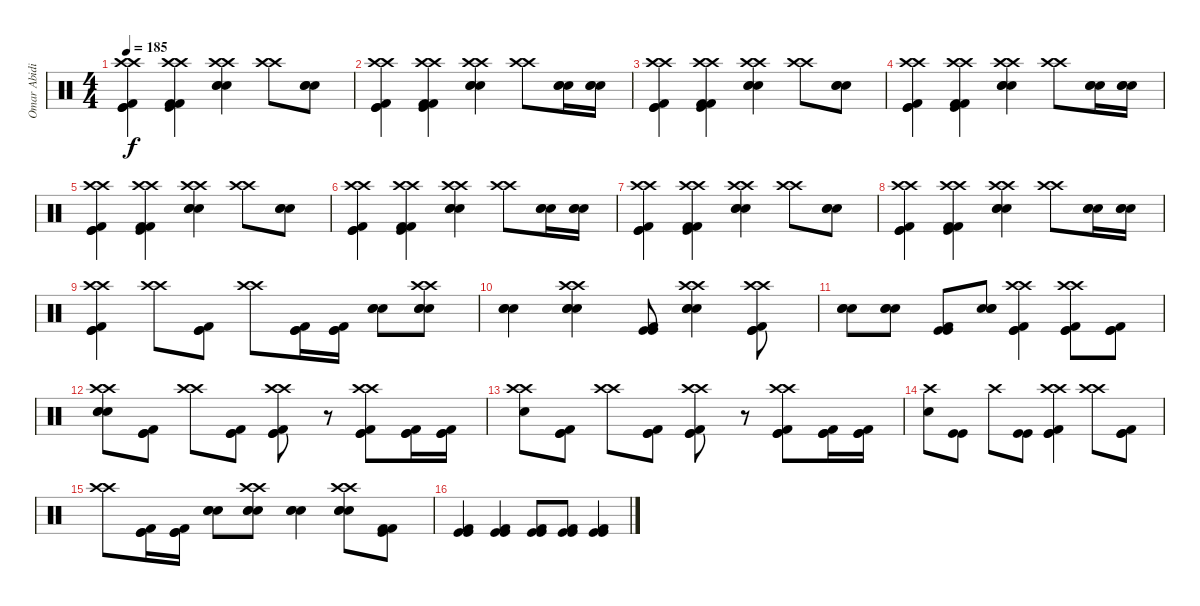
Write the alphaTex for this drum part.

\track ("Omar Abidi" "Omar Abidi") {instrument percussion}
\staff {score}
\articulation defaults
\ts (4 4)
\tempo 185
\clef neutral
\ks c
("Crash high (hit)" "Crash high (hit)" "Kick (hit) 2" "Kick (hit)" "Kick (hit)").4{dy f} ("Crash high (hit)" "Crash high (hit)" "Kick (hit) 2" "Kick (hit) 2" "Kick (hit)").4 ("Crash high (hit)" "Crash high (hit)" "Snare (hit) 2" "Snare (hit) 2" "Electric Snare (hit)").4 ("Crash high (hit)" "Crash high (hit)").8 ("Snare (hit) 2" "Snare (hit) 2" "Electric Snare (hit)").8 |
("Crash high (hit)" "Crash high (hit)" "Kick (hit) 2" "Kick (hit)" "Kick (hit)").4 ("Crash high (hit)" "Crash high (hit)" "Kick (hit) 2" "Kick (hit) 2" "Kick (hit)").4 ("Crash high (hit)" "Crash high (hit)" "Snare (hit) 2" "Snare (hit) 2" "Electric Snare (hit)").4 ("Crash high (hit)" "Crash high (hit)").8 ("Snare (hit) 2" "Snare (hit) 2" "Electric Snare (hit)").16 ("Snare (hit) 2" "Snare (hit) 2" "Electric Snare (hit)").16 |
("Crash high (hit)" "Crash high (hit)" "Kick (hit) 2" "Kick (hit)" "Kick (hit)").4 ("Crash high (hit)" "Crash high (hit)" "Kick (hit) 2" "Kick (hit) 2" "Kick (hit)").4 ("Crash high (hit)" "Crash high (hit)" "Snare (hit) 2" "Snare (hit) 2" "Electric Snare (hit)").4 ("Crash high (hit)" "Crash high (hit)").8 ("Snare (hit) 2" "Snare (hit) 2" "Electric Snare (hit)").8 |
("Crash high (hit)" "Crash high (hit)" "Kick (hit) 2" "Kick (hit)" "Kick (hit)").4 ("Crash high (hit)" "Crash high (hit)" "Kick (hit) 2" "Kick (hit) 2" "Kick (hit)").4 ("Crash high (hit)" "Crash high (hit)" "Snare (hit) 2" "Snare (hit) 2" "Electric Snare (hit)").4 ("Crash high (hit)" "Crash high (hit)").8 ("Snare (hit) 2" "Snare (hit) 2" "Electric Snare (hit)").16 ("Snare (hit) 2" "Snare (hit) 2" "Electric Snare (hit)").16 |
("Crash high (hit)" "Crash high (hit)" "Kick (hit) 2" "Kick (hit)" "Kick (hit)").4 ("Crash high (hit)" "Crash high (hit)" "Kick (hit) 2" "Kick (hit) 2" "Kick (hit)").4 ("Crash high (hit)" "Crash high (hit)" "Snare (hit) 2" "Snare (hit) 2" "Electric Snare (hit)").4 ("Crash high (hit)" "Crash high (hit)").8 ("Snare (hit) 2" "Snare (hit) 2" "Electric Snare (hit)").8 |
("Crash high (hit)" "Crash high (hit)" "Kick (hit) 2" "Kick (hit)" "Kick (hit)").4 ("Crash high (hit)" "Crash high (hit)" "Kick (hit) 2" "Kick (hit) 2" "Kick (hit)").4 ("Crash high (hit)" "Crash high (hit)" "Snare (hit) 2" "Snare (hit) 2" "Electric Snare (hit)").4 ("Crash high (hit)" "Crash high (hit)").8 ("Snare (hit) 2" "Snare (hit) 2" "Electric Snare (hit)").16 ("Snare (hit) 2" "Snare (hit) 2" "Electric Snare (hit)").16 |
("Crash high (hit)" "Crash high (hit)" "Kick (hit) 2" "Kick (hit)" "Kick (hit)").4 ("Crash high (hit)" "Crash high (hit)" "Kick (hit) 2" "Kick (hit) 2" "Kick (hit)").4 ("Crash high (hit)" "Crash high (hit)" "Snare (hit) 2" "Snare (hit) 2" "Electric Snare (hit)").4 ("Crash high (hit)" "Crash high (hit)").8 ("Snare (hit) 2" "Snare (hit) 2" "Electric Snare (hit)").8 |
("Crash high (hit)" "Crash high (hit)" "Kick (hit) 2" "Kick (hit)" "Kick (hit)").4 ("Crash high (hit)" "Crash high (hit)" "Kick (hit) 2" "Kick (hit) 2" "Kick (hit)").4 ("Crash high (hit)" "Crash high (hit)" "Snare (hit) 2" "Snare (hit) 2" "Electric Snare (hit)").4 ("Crash high (hit)" "Crash high (hit)").8 ("Snare (hit) 2" "Snare (hit) 2" "Electric Snare (hit)").16 ("Snare (hit) 2" "Snare (hit) 2" "Electric Snare (hit)").16 |
("Crash high (hit)" "Crash high (hit)" "Kick (hit) 2" "Kick (hit)" "Kick (hit)").4 ("Crash high (hit)" "Crash high (hit)").8 ("Kick (hit) 2" "Kick (hit)" "Kick (hit)").8 ("Crash high (hit)" "Crash high (hit)").8 ("Kick (hit) 2" "Kick (hit)" "Kick (hit)").16 ("Kick (hit) 2" "Kick (hit)" "Kick (hit)").16 ("Snare (hit) 2" "Electric Snare (hit)" "Snare (hit) 2").8 ("Crash high (hit)" "Crash high (hit)" "Snare (hit) 2" "Electric Snare (hit)" "Snare (hit) 2").8 |
("Snare (hit) 2" "Electric Snare (hit)" "Snare (hit) 2").4 ("Crash high (hit)" "Crash high (hit)" "Snare (hit) 2" "Electric Snare (hit)" "Snare (hit) 2").4 ("Kick (hit) 2" "Kick (hit)" "Kick (hit)").8 ("Crash high (hit)" "Crash high (hit)" "Snare (hit) 2" "Snare (hit) 2" "Electric Snare (hit)").4 ("Crash high (hit)" "Crash high (hit)" "Kick (hit) 2" "Kick (hit)" "Kick (hit)").8 |
("Snare (hit) 2" "Snare (hit) 2" "Electric Snare (hit)").8 ("Snare (hit) 2" "Snare (hit) 2" "Electric Snare (hit)").8 ("Kick (hit) 2" "Kick (hit)" "Kick (hit)").8 ("Snare (hit) 2" "Snare (hit) 2" "Electric Snare (hit)").8 ("Crash high (hit)" "Crash high (hit)" "Kick (hit)" "Kick (hit) 2" "Kick (hit)").4 ("Crash high (hit)" "Crash high (hit)" "Kick (hit) 2" "Kick (hit)" "Kick (hit)").8 ("Kick (hit) 2" "Kick (hit)" "Kick (hit)").8 |
("Crash high (hit)" "Crash high (hit)" "Snare (hit) 2" "Snare (hit) 2" "Electric Snare (hit)").8 ("Kick (hit) 2" "Kick (hit)" "Kick (hit)").8 ("Crash high (hit)" "Crash high (hit)").8 ("Kick (hit) 2" "Kick (hit)" "Kick (hit)").8 ("Crash high (hit)" "Crash high (hit)" "Kick (hit) 2" "Kick (hit)" "Kick (hit)").8 r.8 ("Crash high (hit)" "Crash high (hit)" "Kick (hit) 2" "Kick (hit)" "Kick (hit)").8 ("Kick (hit) 2" "Kick (hit)" "Kick (hit)").16 ("Kick (hit) 2" "Kick (hit)" "Kick (hit)").16 |
("Crash high (hit)" "Crash high (hit)" "Snare (hit) 2").8 ("Kick (hit) 2" "Kick (hit)" "Kick (hit)").8 ("Crash high (hit)" "Crash high (hit)").8 ("Kick (hit) 2" "Kick (hit)" "Kick (hit)").8 ("Crash high (hit)" "Crash high (hit)" "Kick (hit) 2" "Kick (hit)" "Kick (hit)").8 r.8 ("Crash high (hit)" "Crash high (hit)" "Kick (hit) 2" "Kick (hit)" "Kick (hit)").8 ("Kick (hit) 2" "Kick (hit)" "Kick (hit)").16 ("Kick (hit) 2" "Kick (hit)" "Kick (hit)").16 |
("Crash high (hit)" "Snare (hit) 2").8 ("Kick (hit)" "Kick (hit)").8 "Crash high (hit)".8 ("Kick (hit)" "Kick (hit)").8 ("Crash high (hit)" "Crash high (hit)" "Kick (hit) 2" "Kick (hit)" "Kick (hit)").4 ("Crash high (hit)" "Crash high (hit)").8 ("Kick (hit) 2" "Kick (hit)" "Kick (hit)").8 |
("Crash high (hit)" "Crash high (hit)").8 ("Kick (hit) 2" "Kick (hit)" "Kick (hit)").16 ("Kick (hit) 2" "Kick (hit)" "Kick (hit)").16 ("Snare (hit) 2" "Electric Snare (hit)" "Snare (hit) 2").8 ("Crash high (hit)" "Crash high (hit)" "Snare (hit) 2" "Electric Snare (hit)" "Snare (hit) 2").8 ("Snare (hit) 2" "Electric Snare (hit)" "Snare (hit) 2").4 ("Crash high (hit)" "Crash high (hit)" "Snare (hit) 2" "Electric Snare (hit)" "Snare (hit) 2").8 ("Kick (hit) 2" "Kick (hit) 2" "Kick (hit)").8 |
("Kick (hit) 2" "Kick (hit)" "Kick (hit)").4 ("Kick (hit) 2" "Kick (hit)" "Kick (hit)").4 ("Kick (hit)" "Kick (hit) 2" "Kick (hit)").8 ("Kick (hit)" "Kick (hit) 2" "Kick (hit)").8 ("Kick (hit)" "Kick (hit) 2" "Kick (hit)").4
